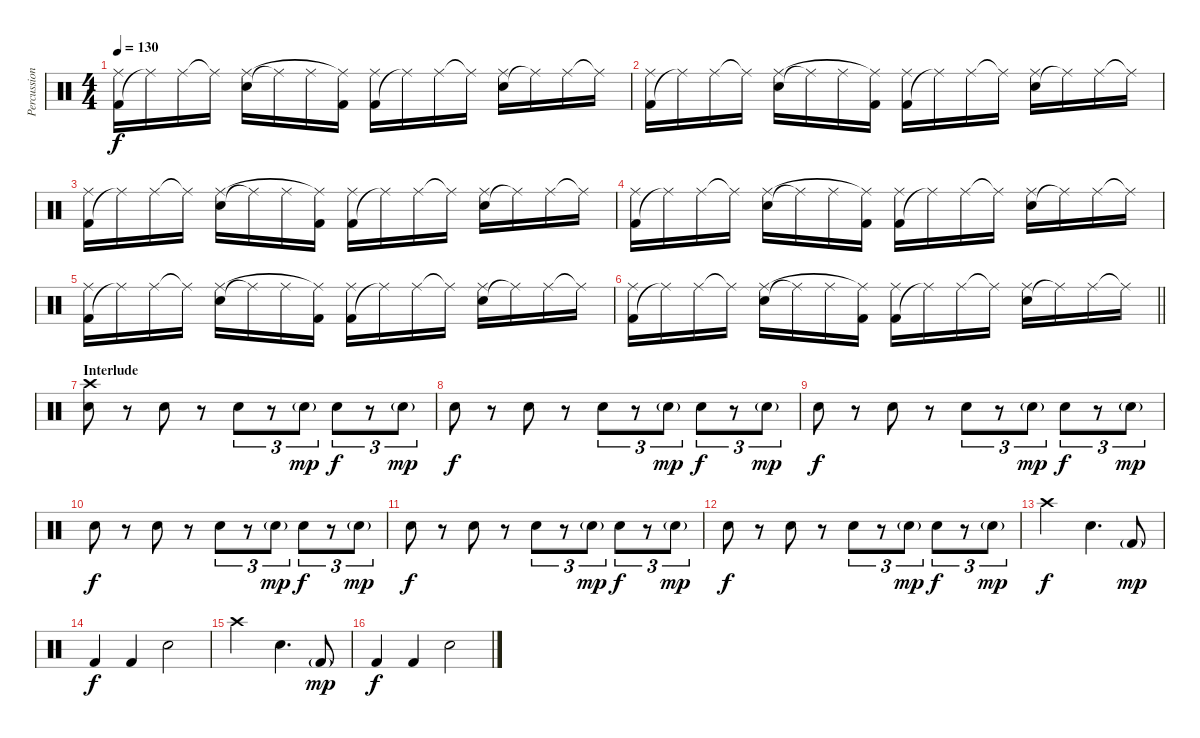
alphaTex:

\track ("Percussion" "Percussion") {instrument percussion}
\staff {score}
\articulation defaults
\ts (4 4)
\tempo 130
\clef neutral
\ks c
("Kick (hit) 2" "Ride (middle)").16{dy f} "Ride (middle)"{t}.16 "Ride (middle)".16 "Ride (middle)"{t}.16 ("Snare (hit) 2" "Ride (middle)").16 "Ride (middle)"{t}.16 "Ride (middle)".16 ("Kick (hit) 2" "Ride (middle)"{t}).16 ("Kick (hit) 2" "Ride (middle)").16 "Ride (middle)"{t}.16 "Ride (middle)".16 "Ride (middle)"{t}.16 ("Snare (hit) 2" "Ride (middle)").16 "Ride (middle)"{t}.16 "Ride (middle)".16 "Ride (middle)"{t}.16 |
("Kick (hit) 2" "Ride (middle)").16 "Ride (middle)"{t}.16 "Ride (middle)".16 "Ride (middle)"{t}.16 ("Snare (hit) 2" "Ride (middle)").16 "Ride (middle)"{t}.16 "Ride (middle)".16 ("Kick (hit) 2" "Ride (middle)"{t}).16 ("Kick (hit) 2" "Ride (middle)").16 "Ride (middle)"{t}.16 "Ride (middle)".16 "Ride (middle)"{t}.16 ("Snare (hit) 2" "Ride (middle)").16 "Ride (middle)"{t}.16 "Ride (middle)".16 "Ride (middle)"{t}.16 |
("Kick (hit) 2" "Ride (middle)").16 "Ride (middle)"{t}.16 "Ride (middle)".16 "Ride (middle)"{t}.16 ("Snare (hit) 2" "Ride (middle)").16 "Ride (middle)"{t}.16 "Ride (middle)".16 ("Kick (hit) 2" "Ride (middle)"{t}).16 ("Kick (hit) 2" "Ride (middle)").16 "Ride (middle)"{t}.16 "Ride (middle)".16 "Ride (middle)"{t}.16 ("Snare (hit) 2" "Ride (middle)").16 "Ride (middle)"{t}.16 "Ride (middle)".16 "Ride (middle)"{t}.16 |
("Kick (hit) 2" "Ride (middle)").16 "Ride (middle)"{t}.16 "Ride (middle)".16 "Ride (middle)"{t}.16 ("Snare (hit) 2" "Ride (middle)").16 "Ride (middle)"{t}.16 "Ride (middle)".16 ("Kick (hit) 2" "Ride (middle)"{t}).16 ("Kick (hit) 2" "Ride (middle)").16 "Ride (middle)"{t}.16 "Ride (middle)".16 "Ride (middle)"{t}.16 ("Snare (hit) 2" "Ride (middle)").16 "Ride (middle)"{t}.16 "Ride (middle)".16 "Ride (middle)"{t}.16 |
("Kick (hit) 2" "Ride (middle)").16 "Ride (middle)"{t}.16 "Ride (middle)".16 "Ride (middle)"{t}.16 ("Snare (hit) 2" "Ride (middle)").16 "Ride (middle)"{t}.16 "Ride (middle)".16 ("Kick (hit) 2" "Ride (middle)"{t}).16 ("Kick (hit) 2" "Ride (middle)").16 "Ride (middle)"{t}.16 "Ride (middle)".16 "Ride (middle)"{t}.16 ("Snare (hit) 2" "Ride (middle)").16 "Ride (middle)"{t}.16 "Ride (middle)".16 "Ride (middle)"{t}.16 |
\barLineRight lightlight
("Kick (hit) 2" "Ride (middle)").16 "Ride (middle)"{t}.16 "Ride (middle)".16 "Ride (middle)"{t}.16 ("Snare (hit) 2" "Ride (middle)").16 "Ride (middle)"{t}.16 "Ride (middle)".16 ("Kick (hit) 2" "Ride (middle)"{t}).16 ("Kick (hit) 2" "Ride (middle)").16 "Ride (middle)"{t}.16 "Ride (middle)".16 "Ride (middle)"{t}.16 ("Snare (hit) 2" "Ride (middle)").16 "Ride (middle)"{t}.16 "Ride (middle)".16 "Ride (middle)"{t}.16 |
\section ("" "Interlude")
("Crash high (hit)" "Electric Snare (hit)").8 r.8 "Electric Snare (hit)".8 r.8 "Electric Snare (hit)".8{tu (3 2)} r.8{tu (3 2)} "Electric Snare (hit)"{g}.8{tu (3 2) dy mp} "Electric Snare (hit)".8{tu (3 2) dy f} r.8{tu (3 2)} "Electric Snare (hit)"{g}.8{tu (3 2) dy mp} |
"Electric Snare (hit)".8{dy f} r.8 "Electric Snare (hit)".8 r.8 "Electric Snare (hit)".8{tu (3 2)} r.8{tu (3 2)} "Electric Snare (hit)"{g}.8{tu (3 2) dy mp} "Electric Snare (hit)".8{tu (3 2) dy f} r.8{tu (3 2)} "Electric Snare (hit)"{g}.8{tu (3 2) dy mp} |
"Electric Snare (hit)".8{dy f} r.8 "Electric Snare (hit)".8 r.8 "Electric Snare (hit)".8{tu (3 2)} r.8{tu (3 2)} "Electric Snare (hit)"{g}.8{tu (3 2) dy mp} "Electric Snare (hit)".8{tu (3 2) dy f} r.8{tu (3 2)} "Electric Snare (hit)"{g}.8{tu (3 2) dy mp} |
"Electric Snare (hit)".8{dy f} r.8 "Electric Snare (hit)".8 r.8 "Electric Snare (hit)".8{tu (3 2)} r.8{tu (3 2)} "Electric Snare (hit)"{g}.8{tu (3 2) dy mp} "Electric Snare (hit)".8{tu (3 2) dy f} r.8{tu (3 2)} "Electric Snare (hit)"{g}.8{tu (3 2) dy mp} |
"Electric Snare (hit)".8{dy f} r.8 "Electric Snare (hit)".8 r.8 "Electric Snare (hit)".8{tu (3 2)} r.8{tu (3 2)} "Electric Snare (hit)"{g}.8{tu (3 2) dy mp} "Electric Snare (hit)".8{tu (3 2) dy f} r.8{tu (3 2)} "Electric Snare (hit)"{g}.8{tu (3 2) dy mp} |
"Electric Snare (hit)".8{dy f} r.8 "Electric Snare (hit)".8 r.8 "Electric Snare (hit)".8{tu (3 2)} r.8{tu (3 2)} "Electric Snare (hit)"{g}.8{tu (3 2) dy mp} "Electric Snare (hit)".8{tu (3 2) dy f} r.8{tu (3 2)} "Electric Snare (hit)"{g}.8{tu (3 2) dy mp} |
"Crash high (hit)".2{dy f} "Electric Snare (hit)".4{d} "Kick (hit) 2"{g}.8{dy mp} |
"Kick (hit) 2".4{dy f} "Kick (hit) 2".4 "Electric Snare (hit)".2 |
"Crash high (hit)".2 "Electric Snare (hit)".4{d} "Kick (hit) 2"{g}.8{dy mp} |
"Kick (hit) 2".4{dy f} "Kick (hit) 2".4 "Electric Snare (hit)".2
